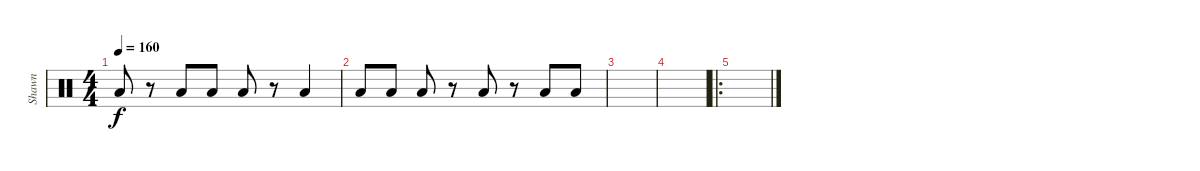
\track ("Shawn" "Shawn") {instrument percussion}
\staff {score}
\articulation defaults
\ts (4 4)
\tempo 160
\clef neutral
\ks c "Low Tom (hit)".8{dy f}
r.8 "Low Tom (hit)".8 "Low Tom (hit)".8 "Low Tom (hit)".8 r.8 "Low Tom (hit)".4 |
"Low Tom (hit)".8 "Low Tom (hit)".8 "Low Tom (hit)".8 r.8 "Low Tom (hit)".8 r.8 "Low Tom (hit)".8 "Low Tom (hit)".8 |
|
|
\ro
